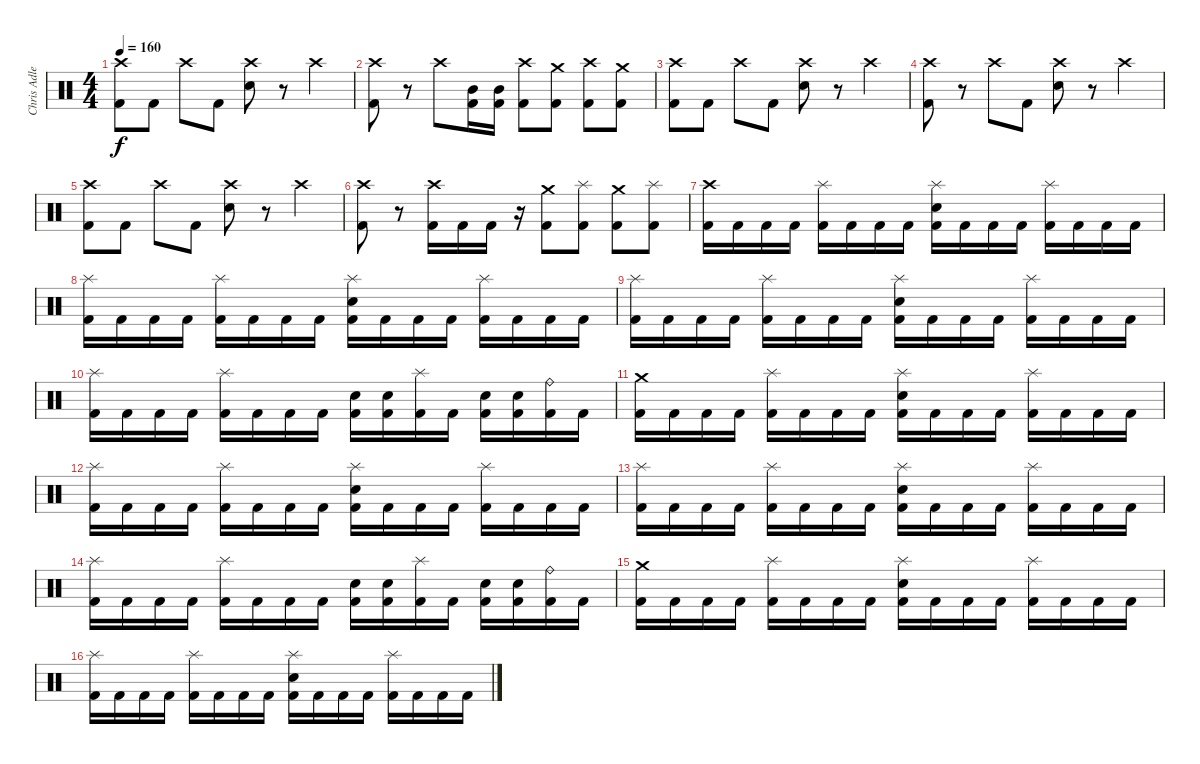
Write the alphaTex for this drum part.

\track ("Chris Adler" "Chris Adle") {instrument percussion}
\staff {score}
\articulation defaults
\ts (4 4)
\tempo 160
\clef neutral
\ks c
("Crash high (hit)" "Kick (hit) 2").8{dy f} "Kick (hit) 2".8 "Crash high (hit)".8 "Kick (hit) 2".8 ("Crash high (hit)" "Electric Snare (hit)").8 r.8 "Crash high (hit)".4 |
("Crash high (hit)" "Kick (hit) 2").8 r.8 "Crash high (hit)".8 ("Mid Tom (hit)" "Kick (hit) 2").16 ("Mid Tom (hit)" "Kick (hit) 2").16 ("Crash high (hit)" "Kick (hit) 2").8 ("Crash medium (hit)" "Kick (hit) 2").8 ("Crash high (hit)" "Kick (hit) 2").8 ("Crash medium (hit)" "Kick (hit) 2").8 |
("Crash high (hit)" "Kick (hit) 2").8 "Kick (hit) 2".8 "Crash high (hit)".8 "Kick (hit) 2".8 ("Crash high (hit)" "Electric Snare (hit)").8 r.8 "Crash high (hit)".4 |
("Crash high (hit)" "Kick (hit) 2").8 r.8 "Crash high (hit)".8 "Kick (hit) 2".8 ("Crash high (hit)" "Electric Snare (hit)").8 r.8 "Crash high (hit)".4 |
("Crash high (hit)" "Kick (hit) 2").8 "Kick (hit) 2".8 "Crash high (hit)".8 "Kick (hit) 2".8 ("Crash high (hit)" "Electric Snare (hit)").8 r.8 "Crash high (hit)".4 |
("Crash high (hit)" "Kick (hit) 2").8 r.8 ("Crash high (hit)" "Kick (hit) 2").16 "Kick (hit) 2".16 "Kick (hit) 2".16 r.16 ("Crash medium (hit)" "Kick (hit) 2").8 ("Splash (hit)" "Kick (hit) 2").8 ("Crash medium (hit)" "Kick (hit) 2").8 ("Splash (hit)" "Kick (hit) 2").8 |
("Crash high (hit)" "Kick (hit) 2").16 "Kick (hit) 2".16 "Kick (hit) 2".16 "Kick (hit) 2".16 ("Splash (hit)" "Kick (hit) 2").16 "Kick (hit) 2".16 "Kick (hit) 2".16 "Kick (hit) 2".16 ("Splash (hit)" "Electric Snare (hit)" "Kick (hit) 2").16 "Kick (hit) 2".16 "Kick (hit) 2".16 "Kick (hit) 2".16 ("Splash (hit)" "Kick (hit) 2").16 "Kick (hit) 2".16 "Kick (hit) 2".16 "Kick (hit) 2".16 |
("Splash (hit)" "Kick (hit) 2").16 "Kick (hit) 2".16 "Kick (hit) 2".16 "Kick (hit) 2".16 ("Splash (hit)" "Kick (hit) 2").16 "Kick (hit) 2".16 "Kick (hit) 2".16 "Kick (hit) 2".16 ("Splash (hit)" "Electric Snare (hit)" "Kick (hit) 2").16 "Kick (hit) 2".16 "Kick (hit) 2".16 "Kick (hit) 2".16 ("Splash (hit)" "Kick (hit) 2").16 "Kick (hit) 2".16 "Kick (hit) 2".16 "Kick (hit) 2".16 |
("Splash (hit)" "Kick (hit) 2").16 "Kick (hit) 2".16 "Kick (hit) 2".16 "Kick (hit) 2".16 ("Splash (hit)" "Kick (hit) 2").16 "Kick (hit) 2".16 "Kick (hit) 2".16 "Kick (hit) 2".16 ("Splash (hit)" "Electric Snare (hit)" "Kick (hit) 2").16 "Kick (hit) 2".16 "Kick (hit) 2".16 "Kick (hit) 2".16 ("Splash (hit)" "Kick (hit) 2").16 "Kick (hit) 2".16 "Kick (hit) 2".16 "Kick (hit) 2".16 |
("Splash (hit)" "Kick (hit) 2").16 "Kick (hit) 2".16 "Kick (hit) 2".16 "Kick (hit) 2".16 ("Splash (hit)" "Kick (hit) 2").16 "Kick (hit) 2".16 "Kick (hit) 2".16 "Kick (hit) 2".16 ("Electric Snare (hit)" "Kick (hit) 2").16 ("Electric Snare (hit)" "Kick (hit) 2").16 ("Splash (hit)" "Kick (hit) 2").16 "Kick (hit) 2".16 ("Electric Snare (hit)" "Kick (hit) 2").16 ("Electric Snare (hit)" "Kick (hit) 2").16 ("Ride (bell)" "Kick (hit) 2").16 "Kick (hit) 2".16 |
("Crash medium (hit)" "Kick (hit) 2").16 "Kick (hit) 2".16 "Kick (hit) 2".16 "Kick (hit) 2".16 ("Splash (hit)" "Kick (hit) 2").16 "Kick (hit) 2".16 "Kick (hit) 2".16 "Kick (hit) 2".16 ("Splash (hit)" "Electric Snare (hit)" "Kick (hit) 2").16 "Kick (hit) 2".16 "Kick (hit) 2".16 "Kick (hit) 2".16 ("Splash (hit)" "Kick (hit) 2").16 "Kick (hit) 2".16 "Kick (hit) 2".16 "Kick (hit) 2".16 |
("Splash (hit)" "Kick (hit) 2").16 "Kick (hit) 2".16 "Kick (hit) 2".16 "Kick (hit) 2".16 ("Splash (hit)" "Kick (hit) 2").16 "Kick (hit) 2".16 "Kick (hit) 2".16 "Kick (hit) 2".16 ("Splash (hit)" "Electric Snare (hit)" "Kick (hit) 2").16 "Kick (hit) 2".16 "Kick (hit) 2".16 "Kick (hit) 2".16 ("Splash (hit)" "Kick (hit) 2").16 "Kick (hit) 2".16 "Kick (hit) 2".16 "Kick (hit) 2".16 |
("Splash (hit)" "Kick (hit) 2").16 "Kick (hit) 2".16 "Kick (hit) 2".16 "Kick (hit) 2".16 ("Splash (hit)" "Kick (hit) 2").16 "Kick (hit) 2".16 "Kick (hit) 2".16 "Kick (hit) 2".16 ("Splash (hit)" "Electric Snare (hit)" "Kick (hit) 2").16 "Kick (hit) 2".16 "Kick (hit) 2".16 "Kick (hit) 2".16 ("Splash (hit)" "Kick (hit) 2").16 "Kick (hit) 2".16 "Kick (hit) 2".16 "Kick (hit) 2".16 |
("Splash (hit)" "Kick (hit) 2").16 "Kick (hit) 2".16 "Kick (hit) 2".16 "Kick (hit) 2".16 ("Splash (hit)" "Kick (hit) 2").16 "Kick (hit) 2".16 "Kick (hit) 2".16 "Kick (hit) 2".16 ("Electric Snare (hit)" "Kick (hit) 2").16 ("Electric Snare (hit)" "Kick (hit) 2").16 ("Splash (hit)" "Kick (hit) 2").16 "Kick (hit) 2".16 ("Electric Snare (hit)" "Kick (hit) 2").16 ("Electric Snare (hit)" "Kick (hit) 2").16 ("Ride (bell)" "Kick (hit) 2").16 "Kick (hit) 2".16 |
("Crash medium (hit)" "Kick (hit) 2").16 "Kick (hit) 2".16 "Kick (hit) 2".16 "Kick (hit) 2".16 ("Splash (hit)" "Kick (hit) 2").16 "Kick (hit) 2".16 "Kick (hit) 2".16 "Kick (hit) 2".16 ("Splash (hit)" "Electric Snare (hit)" "Kick (hit) 2").16 "Kick (hit) 2".16 "Kick (hit) 2".16 "Kick (hit) 2".16 ("Splash (hit)" "Kick (hit) 2").16 "Kick (hit) 2".16 "Kick (hit) 2".16 "Kick (hit) 2".16 |
("Splash (hit)" "Kick (hit) 2").16 "Kick (hit) 2".16 "Kick (hit) 2".16 "Kick (hit) 2".16 ("Splash (hit)" "Kick (hit) 2").16 "Kick (hit) 2".16 "Kick (hit) 2".16 "Kick (hit) 2".16 ("Splash (hit)" "Electric Snare (hit)" "Kick (hit) 2").16 "Kick (hit) 2".16 "Kick (hit) 2".16 "Kick (hit) 2".16 ("Splash (hit)" "Kick (hit) 2").16 "Kick (hit) 2".16 "Kick (hit) 2".16 "Kick (hit) 2".16
